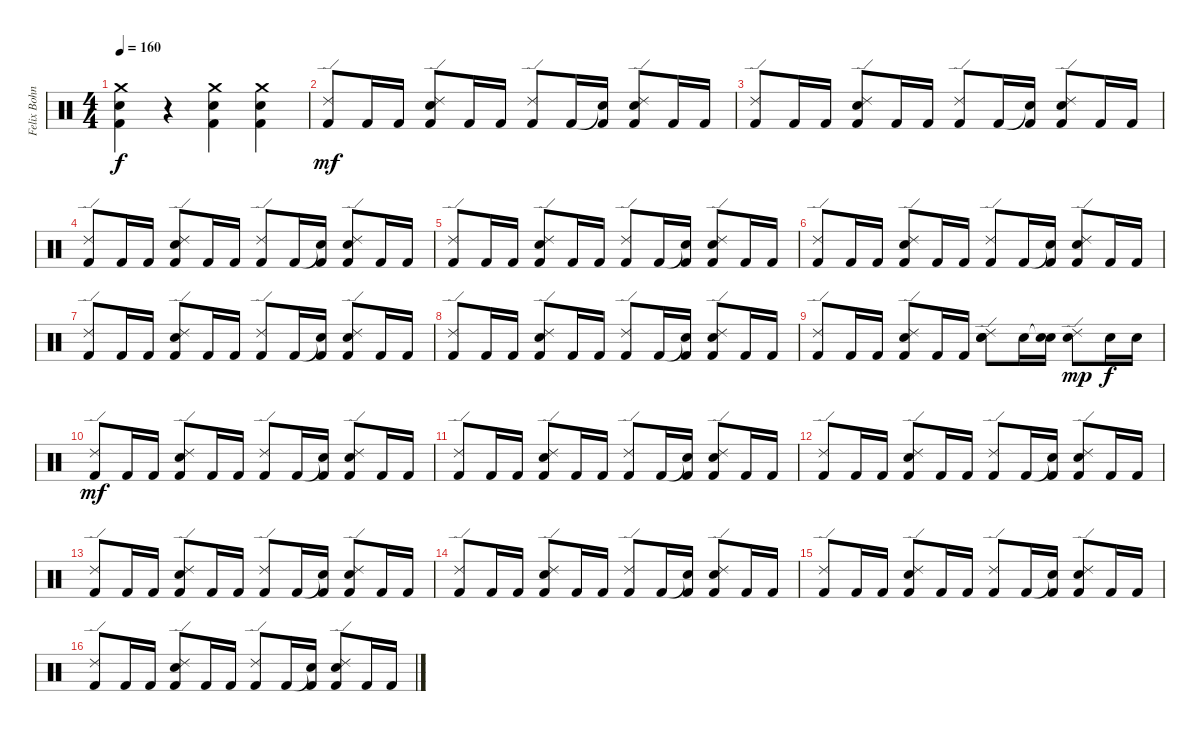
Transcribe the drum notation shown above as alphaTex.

\track ("Felix Bohnke" "Felix Bohn") {instrument percussion}
\staff {score}
\articulation defaults
\ts (4 4)
\tempo 160
\clef neutral
\ks c
("Crash medium (hit)" "Electric Snare (hit)" "Kick (hit) 2").4{dy f} r.4 ("Crash medium (hit)" "Electric Snare (hit)" "Kick (hit) 2").4 ("Crash medium (hit)" "Electric Snare (hit)" "Kick (hit) 2").4 |
("Ride (edge) 2" "Kick (hit) 2").8{dy mf} "Kick (hit) 2".16 "Kick (hit) 2".16 ("Ride (edge) 2" "Electric Snare (hit)" "Kick (hit) 2").8 "Kick (hit) 2".16 "Kick (hit) 2".16 ("Ride (edge) 2" "Kick (hit) 2").8 "Kick (hit) 2".16 ("Snare (hit)"{t} "Kick (hit) 2").16 ("Ride (edge) 2" "Electric Snare (hit)" "Kick (hit) 2").8 "Kick (hit) 2".16 "Kick (hit) 2".16 |
("Ride (edge) 2" "Kick (hit) 2").8 "Kick (hit) 2".16 "Kick (hit) 2".16 ("Ride (edge) 2" "Electric Snare (hit)" "Kick (hit) 2").8 "Kick (hit) 2".16 "Kick (hit) 2".16 ("Ride (edge) 2" "Kick (hit) 2").8 "Kick (hit) 2".16 ("Snare (hit)"{t} "Kick (hit) 2").16 ("Ride (edge) 2" "Electric Snare (hit)" "Kick (hit) 2").8 "Kick (hit) 2".16 "Kick (hit) 2".16 |
("Ride (edge) 2" "Kick (hit) 2").8 "Kick (hit) 2".16 "Kick (hit) 2".16 ("Ride (edge) 2" "Electric Snare (hit)" "Kick (hit) 2").8 "Kick (hit) 2".16 "Kick (hit) 2".16 ("Ride (edge) 2" "Kick (hit) 2").8 "Kick (hit) 2".16 ("Snare (hit)"{t} "Kick (hit) 2").16 ("Ride (edge) 2" "Electric Snare (hit)" "Kick (hit) 2").8 "Kick (hit) 2".16 "Kick (hit) 2".16 |
("Ride (edge) 2" "Kick (hit) 2").8 "Kick (hit) 2".16 "Kick (hit) 2".16 ("Ride (edge) 2" "Electric Snare (hit)" "Kick (hit) 2").8 "Kick (hit) 2".16 "Kick (hit) 2".16 ("Ride (edge) 2" "Kick (hit) 2").8 "Kick (hit) 2".16 ("Snare (hit)"{t} "Kick (hit) 2").16 ("Ride (edge) 2" "Electric Snare (hit)" "Kick (hit) 2").8 "Kick (hit) 2".16 "Kick (hit) 2".16 |
("Ride (edge) 2" "Kick (hit) 2").8 "Kick (hit) 2".16 "Kick (hit) 2".16 ("Ride (edge) 2" "Electric Snare (hit)" "Kick (hit) 2").8 "Kick (hit) 2".16 "Kick (hit) 2".16 ("Ride (edge) 2" "Kick (hit) 2").8 "Kick (hit) 2".16 ("Snare (hit)"{t} "Kick (hit) 2").16 ("Ride (edge) 2" "Electric Snare (hit)" "Kick (hit) 2").8 "Kick (hit) 2".16 "Kick (hit) 2".16 |
("Ride (edge) 2" "Kick (hit) 2").8 "Kick (hit) 2".16 "Kick (hit) 2".16 ("Ride (edge) 2" "Electric Snare (hit)" "Kick (hit) 2").8 "Kick (hit) 2".16 "Kick (hit) 2".16 ("Ride (edge) 2" "Kick (hit) 2").8 "Kick (hit) 2".16 ("Snare (hit)"{t} "Kick (hit) 2").16 ("Ride (edge) 2" "Electric Snare (hit)" "Kick (hit) 2").8 "Kick (hit) 2".16 "Kick (hit) 2".16 |
("Ride (edge) 2" "Kick (hit) 2").8 "Kick (hit) 2".16 "Kick (hit) 2".16 ("Ride (edge) 2" "Electric Snare (hit)" "Kick (hit) 2").8 "Kick (hit) 2".16 "Kick (hit) 2".16 ("Ride (edge) 2" "Kick (hit) 2").8 "Kick (hit) 2".16 ("Snare (hit)"{t} "Kick (hit) 2").16 ("Ride (edge) 2" "Electric Snare (hit)" "Kick (hit) 2").8 "Kick (hit) 2".16 "Kick (hit) 2".16 |
("Ride (edge) 2" "Kick (hit) 2").8 "Kick (hit) 2".16 "Kick (hit) 2".16 ("Ride (edge) 2" "Electric Snare (hit)" "Kick (hit) 2").8 "Kick (hit) 2".16 "Kick (hit) 2".16 ("Ride (edge) 2" "Electric Snare (hit)" "Electric Snare (hit)").8 "Electric Snare (hit)".16 ("Snare (hit)"{t} "Electric Snare (hit)").16 ("Ride (edge) 2" "Electric Snare (hit)").8{dy mp} "Electric Snare (hit)".16{dy f} "Electric Snare (hit)".16 |
("Ride (edge) 2" "Kick (hit) 2").8{dy mf} "Kick (hit) 2".16 "Kick (hit) 2".16 ("Ride (edge) 2" "Electric Snare (hit)" "Kick (hit) 2").8 "Kick (hit) 2".16 "Kick (hit) 2".16 ("Ride (edge) 2" "Kick (hit) 2").8 "Kick (hit) 2".16 ("Snare (hit)"{t} "Kick (hit) 2").16 ("Ride (edge) 2" "Electric Snare (hit)" "Kick (hit) 2").8 "Kick (hit) 2".16 "Kick (hit) 2".16 |
("Ride (edge) 2" "Kick (hit) 2").8 "Kick (hit) 2".16 "Kick (hit) 2".16 ("Ride (edge) 2" "Electric Snare (hit)" "Kick (hit) 2").8 "Kick (hit) 2".16 "Kick (hit) 2".16 ("Ride (edge) 2" "Kick (hit) 2").8 "Kick (hit) 2".16 ("Snare (hit)"{t} "Kick (hit) 2").16 ("Ride (edge) 2" "Electric Snare (hit)" "Kick (hit) 2").8 "Kick (hit) 2".16 "Kick (hit) 2".16 |
("Ride (edge) 2" "Kick (hit) 2").8 "Kick (hit) 2".16 "Kick (hit) 2".16 ("Ride (edge) 2" "Electric Snare (hit)" "Kick (hit) 2").8 "Kick (hit) 2".16 "Kick (hit) 2".16 ("Ride (edge) 2" "Kick (hit) 2").8 "Kick (hit) 2".16 ("Snare (hit)"{t} "Kick (hit) 2").16 ("Ride (edge) 2" "Electric Snare (hit)" "Kick (hit) 2").8 "Kick (hit) 2".16 "Kick (hit) 2".16 |
("Ride (edge) 2" "Kick (hit) 2").8 "Kick (hit) 2".16 "Kick (hit) 2".16 ("Ride (edge) 2" "Electric Snare (hit)" "Kick (hit) 2").8 "Kick (hit) 2".16 "Kick (hit) 2".16 ("Ride (edge) 2" "Kick (hit) 2").8 "Kick (hit) 2".16 ("Snare (hit)"{t} "Kick (hit) 2").16 ("Ride (edge) 2" "Electric Snare (hit)" "Kick (hit) 2").8 "Kick (hit) 2".16 "Kick (hit) 2".16 |
("Ride (edge) 2" "Kick (hit) 2").8 "Kick (hit) 2".16 "Kick (hit) 2".16 ("Ride (edge) 2" "Electric Snare (hit)" "Kick (hit) 2").8 "Kick (hit) 2".16 "Kick (hit) 2".16 ("Ride (edge) 2" "Kick (hit) 2").8 "Kick (hit) 2".16 ("Snare (hit)"{t} "Kick (hit) 2").16 ("Ride (edge) 2" "Electric Snare (hit)" "Kick (hit) 2").8 "Kick (hit) 2".16 "Kick (hit) 2".16 |
("Ride (edge) 2" "Kick (hit) 2").8 "Kick (hit) 2".16 "Kick (hit) 2".16 ("Ride (edge) 2" "Electric Snare (hit)" "Kick (hit) 2").8 "Kick (hit) 2".16 "Kick (hit) 2".16 ("Ride (edge) 2" "Kick (hit) 2").8 "Kick (hit) 2".16 ("Snare (hit)"{t} "Kick (hit) 2").16 ("Ride (edge) 2" "Electric Snare (hit)" "Kick (hit) 2").8 "Kick (hit) 2".16 "Kick (hit) 2".16 |
("Ride (edge) 2" "Kick (hit) 2").8 "Kick (hit) 2".16 "Kick (hit) 2".16 ("Ride (edge) 2" "Electric Snare (hit)" "Kick (hit) 2").8 "Kick (hit) 2".16 "Kick (hit) 2".16 ("Ride (edge) 2" "Kick (hit) 2").8 "Kick (hit) 2".16 ("Snare (hit)"{t} "Kick (hit) 2").16 ("Ride (edge) 2" "Electric Snare (hit)" "Kick (hit) 2").8 "Kick (hit) 2".16 "Kick (hit) 2".16
